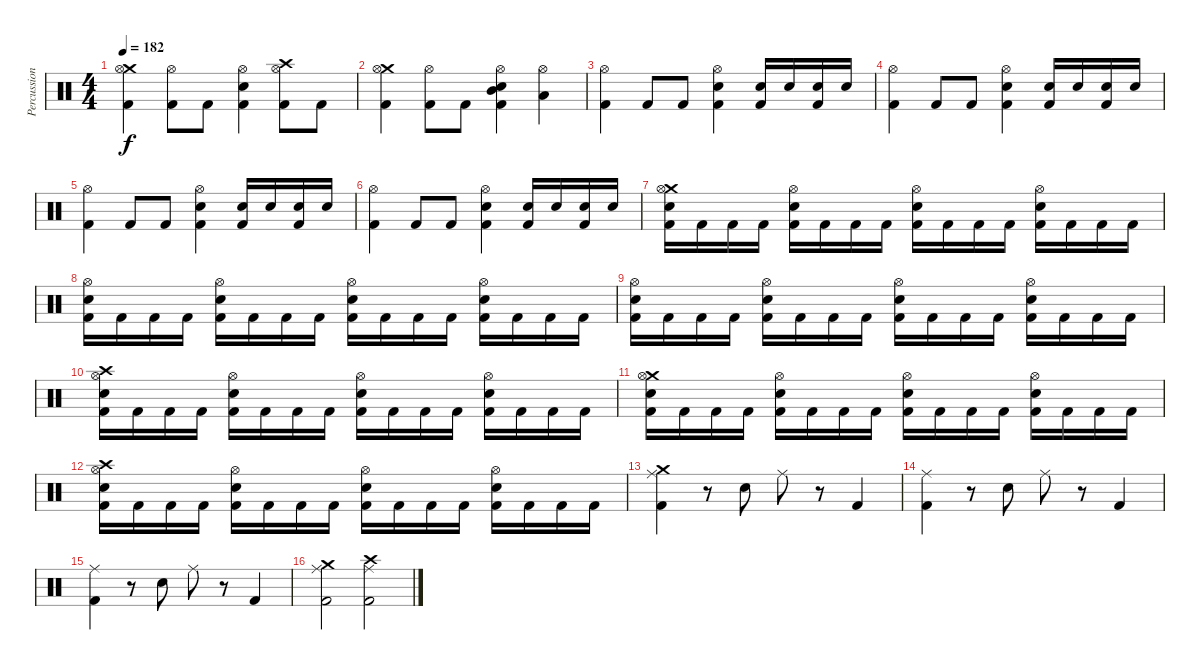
\track ("Percussion" "Percussion") {instrument percussion}
\staff {score}
\articulation defaults
\ts (4 4)
\tempo 182
\clef neutral
\ks c
("Crash medium (hit)" "Hi-Hat (open)" "Kick (hit) 2").4{dy f} ("Hi-Hat (open)" "Kick (hit) 2").8 "Kick (hit) 2".8 ("Hi-Hat (open)" "Electric Snare (hit)" "Kick (hit) 2").4 ("Crash high (hit)" "Hi-Hat (open)" "Kick (hit) 2").8 "Kick (hit) 2".8 |
("Crash medium (hit)" "Hi-Hat (open)" "Kick (hit) 2").4 ("Hi-Hat (open)" "Kick (hit) 2").8 "Kick (hit) 2".8 ("Mid Tom (hit)" "Hi-Hat (open)" "Electric Snare (hit)" "Kick (hit) 2").4 ("Hi-Hat (open)" "Low Floor Tom (hit)").4 |
("Hi-Hat (open)" "Kick (hit) 2").4 "Kick (hit) 2".8 "Kick (hit) 2".8 ("Hi-Hat (open)" "Electric Snare (hit)" "Kick (hit) 2").4 ("Electric Snare (hit)" "Kick (hit) 2").16 "Electric Snare (hit)".16 ("Electric Snare (hit)" "Kick (hit) 2").16 "Electric Snare (hit)".16 |
("Hi-Hat (open)" "Kick (hit) 2").4 "Kick (hit) 2".8 "Kick (hit) 2".8 ("Hi-Hat (open)" "Electric Snare (hit)" "Kick (hit) 2").4 ("Electric Snare (hit)" "Kick (hit) 2").16 "Electric Snare (hit)".16 ("Electric Snare (hit)" "Kick (hit) 2").16 "Electric Snare (hit)".16 |
("Hi-Hat (open)" "Kick (hit) 2").4 "Kick (hit) 2".8 "Kick (hit) 2".8 ("Hi-Hat (open)" "Electric Snare (hit)" "Kick (hit) 2").4 ("Electric Snare (hit)" "Kick (hit) 2").16 "Electric Snare (hit)".16 ("Electric Snare (hit)" "Kick (hit) 2").16 "Electric Snare (hit)".16 |
("Hi-Hat (open)" "Kick (hit) 2").4 "Kick (hit) 2".8 "Kick (hit) 2".8 ("Hi-Hat (open)" "Electric Snare (hit)" "Kick (hit) 2").4 ("Electric Snare (hit)" "Kick (hit) 2").16 "Electric Snare (hit)".16 ("Electric Snare (hit)" "Kick (hit) 2").16 "Electric Snare (hit)".16 |
("Crash medium (hit)" "Hi-Hat (open)" "Electric Snare (hit)" "Kick (hit) 2").16 "Kick (hit) 2".16 "Kick (hit) 2".16 "Kick (hit) 2".16 ("Hi-Hat (open)" "Electric Snare (hit)" "Kick (hit) 2").16 "Kick (hit) 2".16 "Kick (hit) 2".16 "Kick (hit) 2".16 ("Hi-Hat (open)" "Electric Snare (hit)" "Kick (hit) 2").16 "Kick (hit) 2".16 "Kick (hit) 2".16 "Kick (hit) 2".16 ("Hi-Hat (open)" "Electric Snare (hit)" "Kick (hit) 2").16 "Kick (hit) 2".16 "Kick (hit) 2".16 "Kick (hit) 2".16 |
("Hi-Hat (open)" "Electric Snare (hit)" "Kick (hit) 2").16 "Kick (hit) 2".16 "Kick (hit) 2".16 "Kick (hit) 2".16 ("Hi-Hat (open)" "Electric Snare (hit)" "Kick (hit) 2").16 "Kick (hit) 2".16 "Kick (hit) 2".16 "Kick (hit) 2".16 ("Hi-Hat (open)" "Electric Snare (hit)" "Kick (hit) 2").16 "Kick (hit) 2".16 "Kick (hit) 2".16 "Kick (hit) 2".16 ("Hi-Hat (open)" "Electric Snare (hit)" "Kick (hit) 2").16 "Kick (hit) 2".16 "Kick (hit) 2".16 "Kick (hit) 2".16 |
("Hi-Hat (open)" "Electric Snare (hit)" "Kick (hit) 2").16 "Kick (hit) 2".16 "Kick (hit) 2".16 "Kick (hit) 2".16 ("Hi-Hat (open)" "Electric Snare (hit)" "Kick (hit) 2").16 "Kick (hit) 2".16 "Kick (hit) 2".16 "Kick (hit) 2".16 ("Hi-Hat (open)" "Electric Snare (hit)" "Kick (hit) 2").16 "Kick (hit) 2".16 "Kick (hit) 2".16 "Kick (hit) 2".16 ("Hi-Hat (open)" "Electric Snare (hit)" "Kick (hit) 2").16 "Kick (hit) 2".16 "Kick (hit) 2".16 "Kick (hit) 2".16 |
("Crash high (hit)" "Hi-Hat (open)" "Electric Snare (hit)" "Kick (hit) 2").16 "Kick (hit) 2".16 "Kick (hit) 2".16 "Kick (hit) 2".16 ("Hi-Hat (open)" "Electric Snare (hit)" "Kick (hit) 2").16 "Kick (hit) 2".16 "Kick (hit) 2".16 "Kick (hit) 2".16 ("Hi-Hat (open)" "Electric Snare (hit)" "Kick (hit) 2").16 "Kick (hit) 2".16 "Kick (hit) 2".16 "Kick (hit) 2".16 ("Hi-Hat (open)" "Electric Snare (hit)" "Kick (hit) 2").16 "Kick (hit) 2".16 "Kick (hit) 2".16 "Kick (hit) 2".16 |
("Crash medium (hit)" "Hi-Hat (open)" "Electric Snare (hit)" "Kick (hit) 2").16 "Kick (hit) 2".16 "Kick (hit) 2".16 "Kick (hit) 2".16 ("Hi-Hat (open)" "Electric Snare (hit)" "Kick (hit) 2").16 "Kick (hit) 2".16 "Kick (hit) 2".16 "Kick (hit) 2".16 ("Hi-Hat (open)" "Electric Snare (hit)" "Kick (hit) 2").16 "Kick (hit) 2".16 "Kick (hit) 2".16 "Kick (hit) 2".16 ("Hi-Hat (open)" "Electric Snare (hit)" "Kick (hit) 2").16 "Kick (hit) 2".16 "Kick (hit) 2".16 "Kick (hit) 2".16 |
("Crash high (hit)" "Hi-Hat (open)" "Electric Snare (hit)" "Kick (hit) 2").16 "Kick (hit) 2".16 "Kick (hit) 2".16 "Kick (hit) 2".16 ("Hi-Hat (open)" "Electric Snare (hit)" "Kick (hit) 2").16 "Kick (hit) 2".16 "Kick (hit) 2".16 "Kick (hit) 2".16 ("Hi-Hat (open)" "Electric Snare (hit)" "Kick (hit) 2").16 "Kick (hit) 2".16 "Kick (hit) 2".16 "Kick (hit) 2".16 ("Hi-Hat (open)" "Electric Snare (hit)" "Kick (hit) 2").16 "Kick (hit) 2".16 "Kick (hit) 2".16 "Kick (hit) 2".16 |
("Crash medium (hit)" "Ride (middle)" "Kick (hit) 2").4 r.8 "Electric Snare (hit)".8 "Ride (middle)".8 r.8 "Kick (hit) 2".4 |
("Ride (middle)" "Kick (hit) 2").4 r.8 "Electric Snare (hit)".8 "Ride (middle)".8 r.8 "Kick (hit) 2".4 |
("Ride (middle)" "Kick (hit) 2").4 r.8 "Electric Snare (hit)".8 "Ride (middle)".8 r.8 "Kick (hit) 2".4 |
("Crash medium (hit)" "Ride (middle)" "Kick (hit) 2").2 ("Crash high (hit)" "Ride (middle)" "Kick (hit) 2").2
